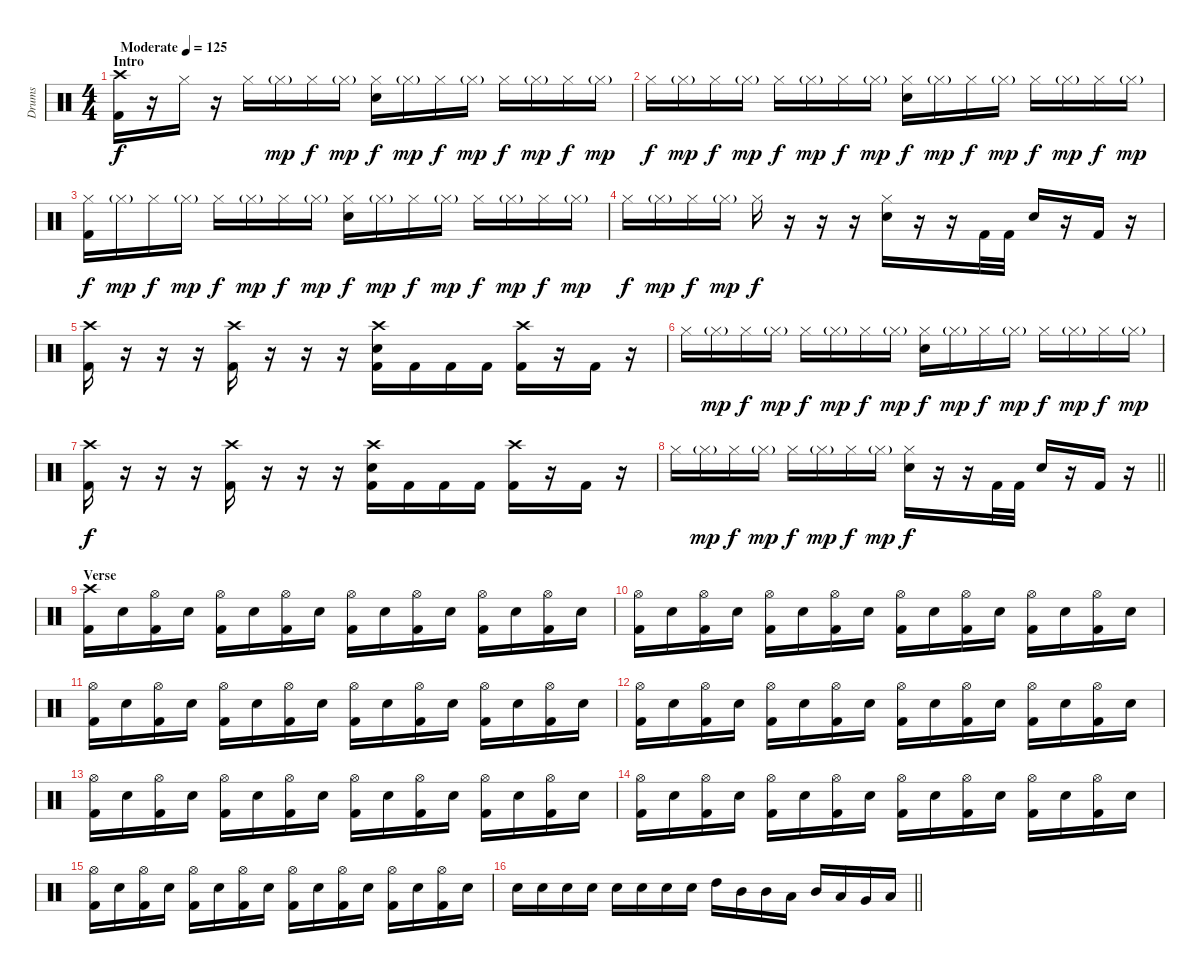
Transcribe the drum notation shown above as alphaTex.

\track ("Drums" "Drums") {instrument percussion}
\staff {score}
\articulation defaults
\ts (4 4)
\section ("" "Intro")
\tempo (125 "Moderate")
\clef neutral
\ks c
("Crash high (hit)" "Kick (hit) 2").16{dy f} r.16 "Hi-Hat (closed)".16 r.16 "Hi-Hat (closed)".16 "Hi-Hat (closed)"{g}.16{dy mp} "Hi-Hat (closed)".16{dy f} "Hi-Hat (closed)"{g}.16{dy mp} ("Hi-Hat (closed)" "Electric Snare (hit)").16{dy f} "Hi-Hat (closed)"{g}.16{dy mp} "Hi-Hat (closed)".16{dy f} "Hi-Hat (closed)"{g}.16{dy mp} "Hi-Hat (closed)".16{dy f} "Hi-Hat (closed)"{g}.16{dy mp} "Hi-Hat (closed)".16{dy f} "Hi-Hat (closed)"{g}.16{dy mp} |
"Hi-Hat (closed)".16{dy f} "Hi-Hat (closed)"{g}.16{dy mp} "Hi-Hat (closed)".16{dy f} "Hi-Hat (closed)"{g}.16{dy mp} "Hi-Hat (closed)".16{dy f} "Hi-Hat (closed)"{g}.16{dy mp} "Hi-Hat (closed)".16{dy f} "Hi-Hat (closed)"{g}.16{dy mp} ("Hi-Hat (closed)" "Electric Snare (hit)").16{dy f} "Hi-Hat (closed)"{g}.16{dy mp} "Hi-Hat (closed)".16{dy f} "Hi-Hat (closed)"{g}.16{dy mp} "Hi-Hat (closed)".16{dy f} "Hi-Hat (closed)"{g}.16{dy mp} "Hi-Hat (closed)".16{dy f} "Hi-Hat (closed)"{g}.16{dy mp} |
("Hi-Hat (closed)" "Kick (hit) 2").16{dy f} "Hi-Hat (closed)"{g}.16{dy mp} "Hi-Hat (closed)".16{dy f} "Hi-Hat (closed)"{g}.16{dy mp} "Hi-Hat (closed)".16{dy f} "Hi-Hat (closed)"{g}.16{dy mp} "Hi-Hat (closed)".16{dy f} "Hi-Hat (closed)"{g}.16{dy mp} ("Hi-Hat (closed)" "Electric Snare (hit)").16{dy f} "Hi-Hat (closed)"{g}.16{dy mp} "Hi-Hat (closed)".16{dy f} "Hi-Hat (closed)"{g}.16{dy mp} "Hi-Hat (closed)".16{dy f} "Hi-Hat (closed)"{g}.16{dy mp} "Hi-Hat (closed)".16{dy f} "Hi-Hat (closed)"{g}.16{dy mp} |
"Hi-Hat (closed)".16{dy f} "Hi-Hat (closed)"{g}.16{dy mp} "Hi-Hat (closed)".16{dy f} "Hi-Hat (closed)"{g}.16{dy mp} "Hi-Hat (closed)".16{dy f} r.16 r.16 r.16 ("Hi-Hat (closed)" "Electric Snare (hit)").16 r.16 r.16 "Kick (hit) 2".32 "Kick (hit) 2".32 "Electric Snare (hit)".16 r.16 "Kick (hit) 2".16 r.16 |
("Crash high (hit)" "Kick (hit) 2").16 r.16 r.16 r.16 ("Crash high (hit)" "Kick (hit) 2").16 r.16 r.16 r.16 ("Crash high (hit)" "Electric Snare (hit)" "Kick (hit) 2").16 "Kick (hit) 2".16 "Kick (hit) 2".16 "Kick (hit) 2".16 ("Crash high (hit)" "Kick (hit) 2").16 r.16 "Kick (hit) 2".16 r.16 |
"Hi-Hat (closed)".16 "Hi-Hat (closed)"{g}.16{dy mp} "Hi-Hat (closed)".16{dy f} "Hi-Hat (closed)"{g}.16{dy mp} "Hi-Hat (closed)".16{dy f} "Hi-Hat (closed)"{g}.16{dy mp} "Hi-Hat (closed)".16{dy f} "Hi-Hat (closed)"{g}.16{dy mp} ("Hi-Hat (closed)" "Electric Snare (hit)").16{dy f} "Hi-Hat (closed)"{g}.16{dy mp} "Hi-Hat (closed)".16{dy f} "Hi-Hat (closed)"{g}.16{dy mp} "Hi-Hat (closed)".16{dy f} "Hi-Hat (closed)"{g}.16{dy mp} "Hi-Hat (closed)".16{dy f} "Hi-Hat (closed)"{g}.16{dy mp} |
("Crash high (hit)" "Kick (hit) 2").16{dy f} r.16 r.16 r.16 ("Crash high (hit)" "Kick (hit) 2").16 r.16 r.16 r.16 ("Crash high (hit)" "Electric Snare (hit)" "Kick (hit) 2").16 "Kick (hit) 2".16 "Kick (hit) 2".16 "Kick (hit) 2".16 ("Crash high (hit)" "Kick (hit) 2").16 r.16 "Kick (hit) 2".16 r.16 |
\barLineRight lightlight "Hi-Hat (closed)".16 "Hi-Hat (closed)"{g}.16{dy mp} "Hi-Hat (closed)".16{dy f} "Hi-Hat (closed)"{g}.16{dy mp} "Hi-Hat (closed)".16{dy f} "Hi-Hat (closed)"{g}.16{dy mp} "Hi-Hat (closed)".16{dy f} "Hi-Hat (closed)"{g}.16{dy mp}
("Hi-Hat (closed)" "Electric Snare (hit)").16{dy f} r.16 r.16 "Kick (hit) 2".32 "Kick (hit) 2".32 "Electric Snare (hit)".16 r.16 "Kick (hit) 2".16 r.16 |
\section ("" "Verse")
("Crash high (hit)" "Kick (hit) 2").16 "Electric Snare (hit)".16 ("Hi-Hat (open)" "Kick (hit) 2").16 "Electric Snare (hit)".16 ("Hi-Hat (open)" "Kick (hit) 2").16 "Electric Snare (hit)".16 ("Hi-Hat (open)" "Kick (hit) 2").16 "Electric Snare (hit)".16 ("Hi-Hat (open)" "Kick (hit) 2").16 "Electric Snare (hit)".16 ("Hi-Hat (open)" "Kick (hit) 2").16 "Electric Snare (hit)".16 ("Hi-Hat (open)" "Kick (hit) 2").16 "Electric Snare (hit)".16 ("Hi-Hat (open)" "Kick (hit) 2").16 "Electric Snare (hit)".16 |
("Hi-Hat (open)" "Kick (hit) 2").16 "Electric Snare (hit)".16 ("Hi-Hat (open)" "Kick (hit) 2").16 "Electric Snare (hit)".16 ("Hi-Hat (open)" "Kick (hit) 2").16 "Electric Snare (hit)".16 ("Hi-Hat (open)" "Kick (hit) 2").16 "Electric Snare (hit)".16 ("Hi-Hat (open)" "Kick (hit) 2").16 "Electric Snare (hit)".16 ("Hi-Hat (open)" "Kick (hit) 2").16 "Electric Snare (hit)".16 ("Hi-Hat (open)" "Kick (hit) 2").16 "Electric Snare (hit)".16 ("Hi-Hat (open)" "Kick (hit) 2").16 "Electric Snare (hit)".16 |
("Hi-Hat (open)" "Kick (hit) 2").16 "Electric Snare (hit)".16 ("Hi-Hat (open)" "Kick (hit) 2").16 "Electric Snare (hit)".16 ("Hi-Hat (open)" "Kick (hit) 2").16 "Electric Snare (hit)".16 ("Hi-Hat (open)" "Kick (hit) 2").16 "Electric Snare (hit)".16 ("Hi-Hat (open)" "Kick (hit) 2").16 "Electric Snare (hit)".16 ("Hi-Hat (open)" "Kick (hit) 2").16 "Electric Snare (hit)".16 ("Hi-Hat (open)" "Kick (hit) 2").16 "Electric Snare (hit)".16 ("Hi-Hat (open)" "Kick (hit) 2").16 "Electric Snare (hit)".16 |
("Hi-Hat (open)" "Kick (hit) 2").16 "Electric Snare (hit)".16 ("Hi-Hat (open)" "Kick (hit) 2").16 "Electric Snare (hit)".16 ("Hi-Hat (open)" "Kick (hit) 2").16 "Electric Snare (hit)".16 ("Hi-Hat (open)" "Kick (hit) 2").16 "Electric Snare (hit)".16 ("Hi-Hat (open)" "Kick (hit) 2").16 "Electric Snare (hit)".16 ("Hi-Hat (open)" "Kick (hit) 2").16 "Electric Snare (hit)".16 ("Hi-Hat (open)" "Kick (hit) 2").16 "Electric Snare (hit)".16 ("Hi-Hat (open)" "Kick (hit) 2").16 "Electric Snare (hit)".16 |
("Hi-Hat (open)" "Kick (hit) 2").16 "Electric Snare (hit)".16 ("Hi-Hat (open)" "Kick (hit) 2").16 "Electric Snare (hit)".16 ("Hi-Hat (open)" "Kick (hit) 2").16 "Electric Snare (hit)".16 ("Hi-Hat (open)" "Kick (hit) 2").16 "Electric Snare (hit)".16 ("Hi-Hat (open)" "Kick (hit) 2").16 "Electric Snare (hit)".16 ("Hi-Hat (open)" "Kick (hit) 2").16 "Electric Snare (hit)".16 ("Hi-Hat (open)" "Kick (hit) 2").16 "Electric Snare (hit)".16 ("Hi-Hat (open)" "Kick (hit) 2").16 "Electric Snare (hit)".16 |
("Hi-Hat (open)" "Kick (hit) 2").16 "Electric Snare (hit)".16 ("Hi-Hat (open)" "Kick (hit) 2").16 "Electric Snare (hit)".16 ("Hi-Hat (open)" "Kick (hit) 2").16 "Electric Snare (hit)".16 ("Hi-Hat (open)" "Kick (hit) 2").16 "Electric Snare (hit)".16 ("Hi-Hat (open)" "Kick (hit) 2").16 "Electric Snare (hit)".16 ("Hi-Hat (open)" "Kick (hit) 2").16 "Electric Snare (hit)".16 ("Hi-Hat (open)" "Kick (hit) 2").16 "Electric Snare (hit)".16 ("Hi-Hat (open)" "Kick (hit) 2").16 "Electric Snare (hit)".16 |
("Hi-Hat (open)" "Kick (hit) 2").16 "Electric Snare (hit)".16 ("Hi-Hat (open)" "Kick (hit) 2").16 "Electric Snare (hit)".16 ("Hi-Hat (open)" "Kick (hit) 2").16 "Electric Snare (hit)".16 ("Hi-Hat (open)" "Kick (hit) 2").16 "Electric Snare (hit)".16 ("Hi-Hat (open)" "Kick (hit) 2").16 "Electric Snare (hit)".16 ("Hi-Hat (open)" "Kick (hit) 2").16 "Electric Snare (hit)".16 ("Hi-Hat (open)" "Kick (hit) 2").16 "Electric Snare (hit)".16 ("Hi-Hat (open)" "Kick (hit) 2").16 "Electric Snare (hit)".16 |
\barLineRight lightlight "Electric Snare (hit)".16 "Electric Snare (hit)".16 "Electric Snare (hit)".16 "Electric Snare (hit)".16 "Electric Snare (hit)".16 "Electric Snare (hit)".16 "Electric Snare (hit)".16 "Electric Snare (hit)".16 "High Tom (hit)".16 "Mid Tom (hit)".16 "Mid Tom (hit)".16 "Low Tom (hit)".16 "Mid Tom (hit)".16 "Low Tom (hit)".16 "Very Low Tom (hit)".16 "Low Tom (hit)".16
